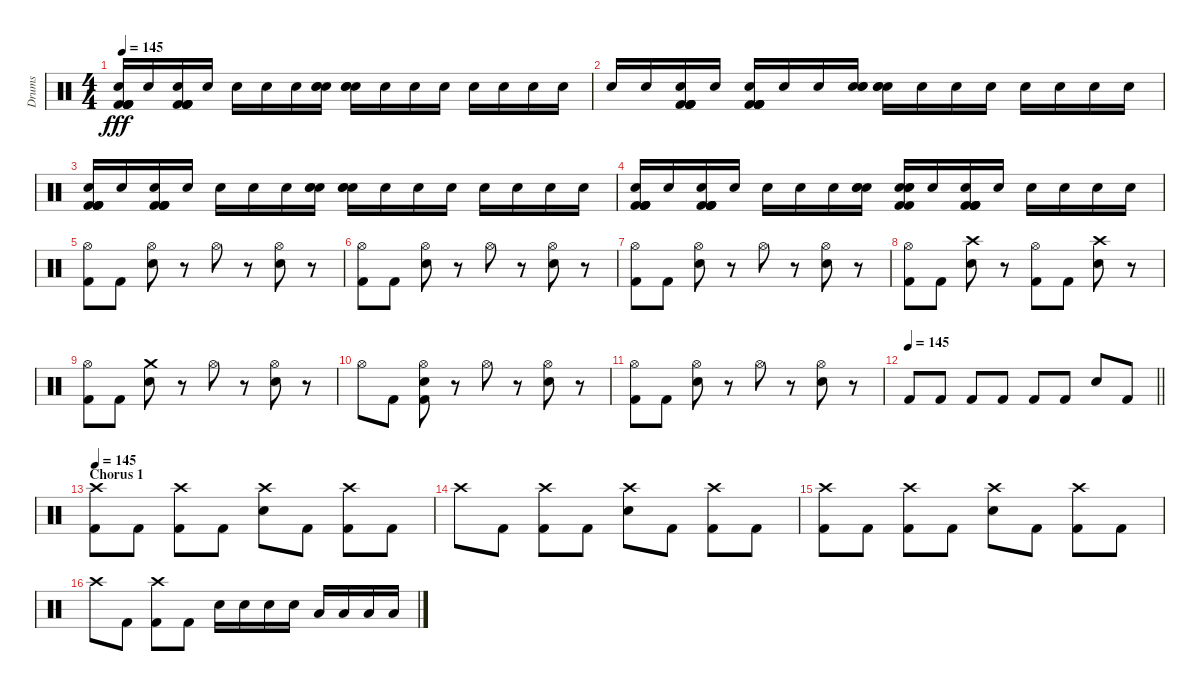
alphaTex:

\track ("Drums" "Drums") {instrument percussion}
\staff {score}
\articulation defaults
\ts (4 4)
\tempo 145
\clef neutral
\ks c
("Kick (hit) 2" "Kick (hit) 2" "Kick (hit) 2" "Snare (hit) 2" "Kick (hit) 2").16{dy fff} "Snare (hit) 2".16 ("Kick (hit) 2" "Kick (hit) 2" "Kick (hit) 2" "Snare (hit) 2" "Kick (hit) 2").16 "Snare (hit) 2".16 "Snare (hit) 2".16 "Snare (hit) 2".16 "Snare (hit) 2".16 ("Electric Snare (hit)" "Snare (hit) 2" "Snare (hit) 2").16 ("Electric Snare (hit)" "Snare (hit) 2" "Snare (hit) 2").16 "Snare (hit) 2".16 "Snare (hit) 2".16 "Snare (hit) 2".16 "Snare (hit) 2".16 "Snare (hit) 2".16 "Snare (hit) 2".16 "Snare (hit) 2".16 |
"Snare (hit) 2".16 "Snare (hit) 2".16 ("Kick (hit) 2" "Kick (hit) 2" "Kick (hit) 2" "Snare (hit) 2" "Kick (hit) 2").16 "Snare (hit) 2".16 ("Kick (hit) 2" "Kick (hit) 2" "Kick (hit) 2" "Snare (hit) 2" "Kick (hit) 2").16 "Snare (hit) 2".16 "Snare (hit) 2".16 ("Electric Snare (hit)" "Snare (hit) 2" "Snare (hit) 2").16 ("Electric Snare (hit)" "Snare (hit) 2" "Snare (hit) 2").16 "Snare (hit) 2".16 "Snare (hit) 2".16 "Snare (hit) 2".16 "Snare (hit) 2".16 "Snare (hit) 2".16 "Snare (hit) 2".16 "Snare (hit) 2".16 |
("Kick (hit) 2" "Kick (hit) 2" "Kick (hit) 2" "Snare (hit) 2" "Kick (hit) 2").16 "Snare (hit) 2".16 ("Kick (hit) 2" "Kick (hit) 2" "Kick (hit) 2" "Snare (hit) 2" "Kick (hit) 2").16 "Snare (hit) 2".16 "Snare (hit) 2".16 "Snare (hit) 2".16 "Snare (hit) 2".16 ("Electric Snare (hit)" "Snare (hit) 2" "Snare (hit) 2").16 ("Electric Snare (hit)" "Snare (hit) 2" "Snare (hit) 2").16 "Snare (hit) 2".16 "Snare (hit) 2".16 "Snare (hit) 2".16 "Snare (hit) 2".16 "Snare (hit) 2".16 "Snare (hit) 2".16 "Snare (hit) 2".16 |
("Kick (hit) 2" "Kick (hit) 2" "Kick (hit) 2" "Snare (hit) 2" "Kick (hit) 2").16 "Snare (hit) 2".16 ("Kick (hit) 2" "Kick (hit) 2" "Kick (hit) 2" "Snare (hit) 2" "Kick (hit) 2").16 "Snare (hit) 2".16 "Snare (hit) 2".16 "Snare (hit) 2".16 "Snare (hit) 2".16 ("Electric Snare (hit)" "Snare (hit) 2" "Snare (hit) 2").16 ("Electric Snare (hit)" "Electric Snare (hit)" "Kick (hit) 2" "Snare (hit) 2" "Kick (hit) 2").16 "Snare (hit) 2".16 ("Kick (hit) 2" "Kick (hit) 2" "Kick (hit) 2" "Snare (hit) 2" "Kick (hit) 2").16 "Snare (hit) 2".16 "Snare (hit) 2".16 "Snare (hit) 2".16 "Snare (hit) 2".16 "Snare (hit) 2".16 |
("Hi-Hat (open)" "Kick (hit) 2").8{volume 12} "Kick (hit) 2".8 ("Hi-Hat (open)" "Electric Snare (hit)").8 r.8 "Hi-Hat (open)".8 r.8 ("Hi-Hat (open)" "Electric Snare (hit)").8 r.8 |
("Hi-Hat (open)" "Kick (hit) 2").8 "Kick (hit) 2".8 ("Hi-Hat (open)" "Electric Snare (hit)").8 r.8 "Hi-Hat (open)".8 r.8 ("Hi-Hat (open)" "Electric Snare (hit)").8 r.8 |
("Hi-Hat (open)" "Kick (hit) 2").8 "Kick (hit) 2".8 ("Hi-Hat (open)" "Electric Snare (hit)").8 r.8 "Hi-Hat (open)".8 r.8 ("Hi-Hat (open)" "Electric Snare (hit)").8 r.8 |
("Hi-Hat (open)" "Kick (hit) 2").8 "Kick (hit) 2".8 ("Crash high (hit)" "Electric Snare (hit)").8 r.8 ("Hi-Hat (open)" "Kick (hit) 2").8 "Kick (hit) 2".8 ("Crash high (hit)" "Electric Snare (hit)").8 r.8 |
("Hi-Hat (open)" "Kick (hit) 2").8 "Kick (hit) 2".8 ("Crash medium (hit)" "Electric Snare (hit)").8 r.8 "Hi-Hat (open)".8 r.8 ("Hi-Hat (open)" "Electric Snare (hit)").8 r.8 |
"Hi-Hat (open)".8 "Kick (hit) 2".8 ("Hi-Hat (open)" "Electric Snare (hit)" "Kick (hit) 2").8 r.8 "Hi-Hat (open)".8 r.8 ("Hi-Hat (open)" "Electric Snare (hit)").8 r.8 |
("Hi-Hat (open)" "Kick (hit) 2").8 "Kick (hit) 2".8 ("Hi-Hat (open)" "Electric Snare (hit)").8 r.8 "Hi-Hat (open)".8 r.8 ("Hi-Hat (open)" "Electric Snare (hit)").8 r.8 |
\tempo 145
\barLineRight lightlight "Kick (hit) 2".8 "Kick (hit) 2".8 "Kick (hit) 2".8 "Kick (hit) 2".8 "Kick (hit) 2".8 "Kick (hit) 2".8 "Electric Snare (hit)".8 "Kick (hit) 2".8
|
\section ("" "Chorus 1")
\tempo 145
("Crash high (hit)" "Kick (hit) 2").8 "Kick (hit) 2".8 ("Crash high (hit)" "Kick (hit) 2").8 "Kick (hit) 2".8 ("Crash high (hit)" "Electric Snare (hit)").8 "Kick (hit) 2".8 ("Crash high (hit)" "Kick (hit) 2").8 "Kick (hit) 2".8 |
"Crash high (hit)".8 "Kick (hit) 2".8 ("Crash high (hit)" "Kick (hit) 2").8 "Kick (hit) 2".8 ("Crash high (hit)" "Electric Snare (hit)").8 "Kick (hit) 2".8 ("Crash high (hit)" "Kick (hit) 2").8 "Kick (hit) 2".8 |
("Crash high (hit)" "Kick (hit) 2").8 "Kick (hit) 2".8 ("Crash high (hit)" "Kick (hit) 2").8 "Kick (hit) 2".8 ("Crash high (hit)" "Electric Snare (hit)").8 "Kick (hit) 2".8 ("Crash high (hit)" "Kick (hit) 2").8 "Kick (hit) 2".8 |
"Crash high (hit)".8 "Kick (hit) 2".8 ("Crash high (hit)" "Kick (hit) 2").8 "Kick (hit) 2".8 "Electric Snare (hit)".16 "Electric Snare (hit)".16 "Electric Snare (hit)".16 "Electric Snare (hit)".16 "Low Tom (hit)".16 "Low Tom (hit)".16 "Low Tom (hit)".16 "Low Tom (hit)".16
